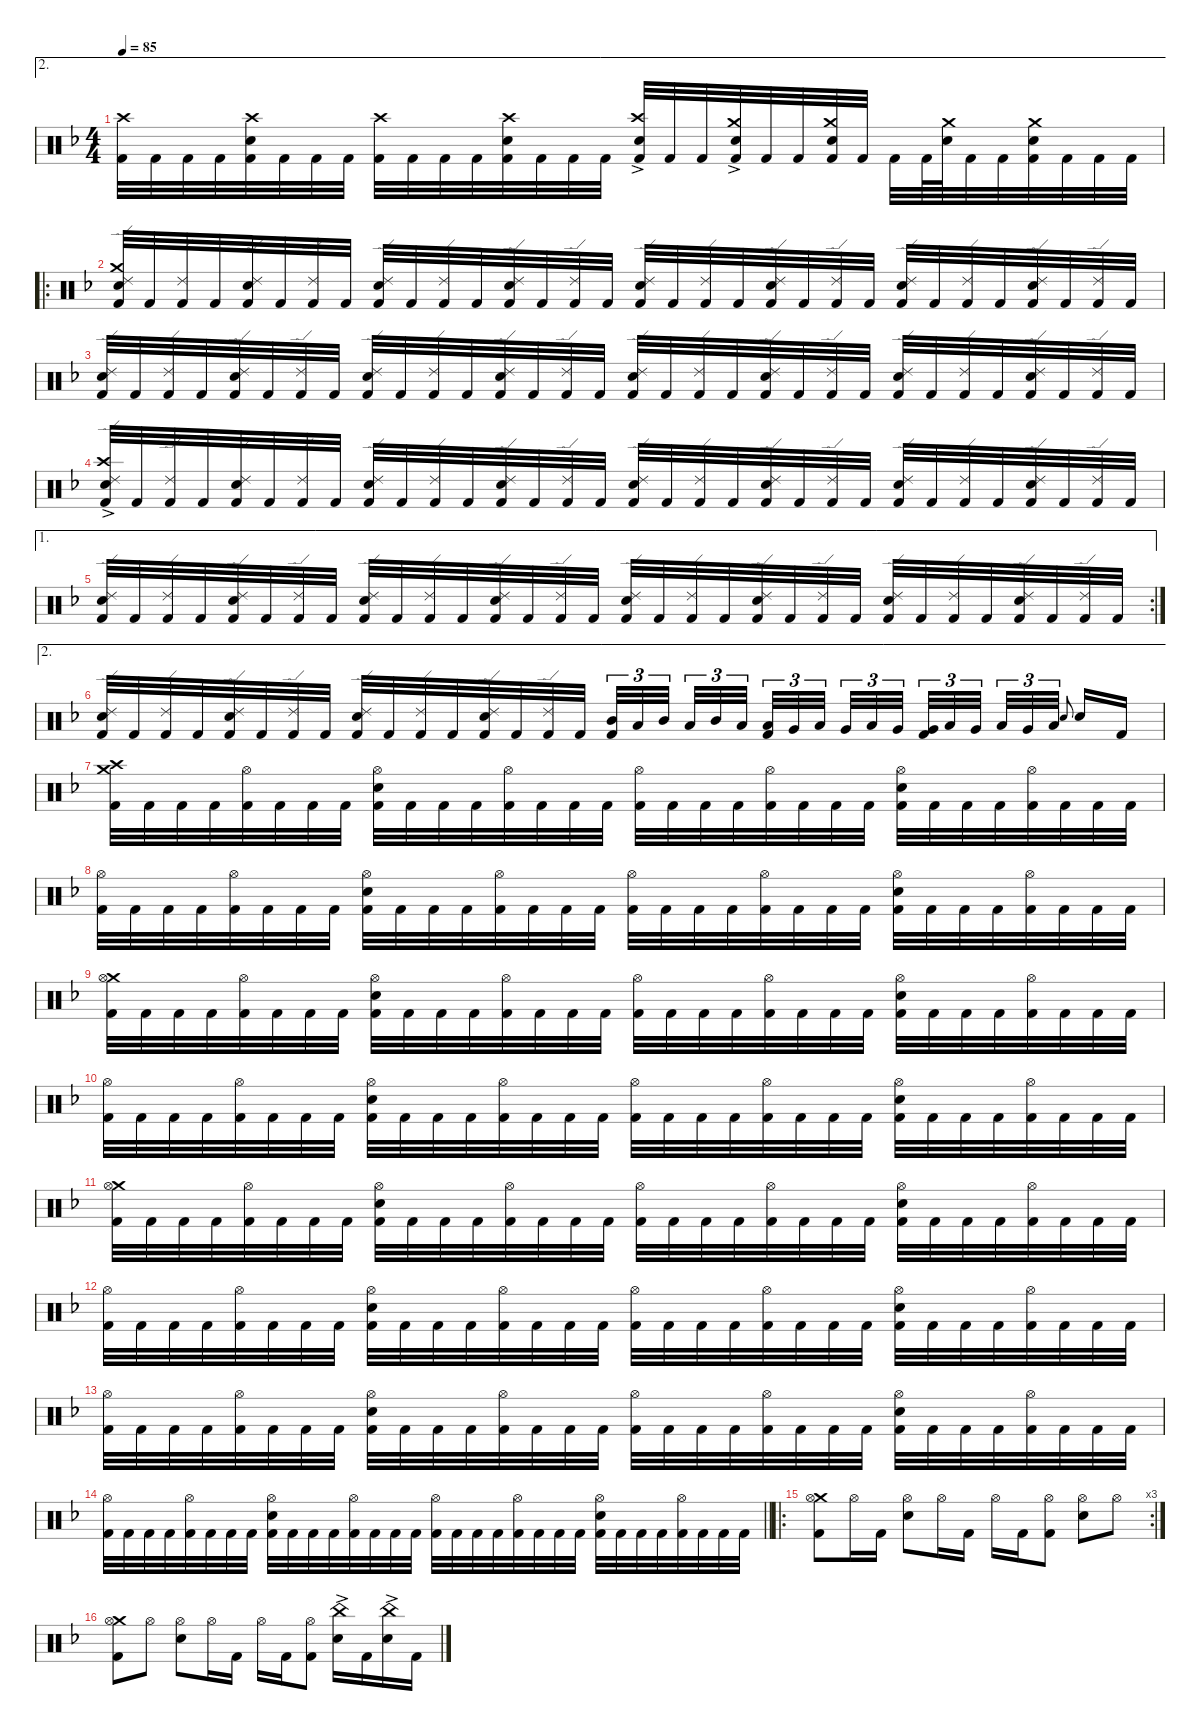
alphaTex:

\defaultSystemsLayout 4
\hideDynamics
\bracketExtendMode nobrackets
\singleTrackTrackNamePolicy hidden
\multiTrackTrackNamePolicy hidden
\firstSystemTrackNameMode fullname
\firstSystemTrackNameOrientation horizontal
\otherSystemsTrackNameOrientation horizontal
\track ("Martin Lopez - Drums" "drm.") {instrument percussion}
\staff {score}
\articulation defaults
\ae 2
\ts (4 4)
\tempo 85
\clef neutral
\ks f
("Crash high (hit)"{acc forcenatural} "Kick (hit) 2"{acc forcenatural}).32{dy f beam Down} "Kick (hit) 2"{acc forcenatural}.32{beam Down} "Kick (hit) 2"{acc forcenatural}.32{beam Down} "Kick (hit) 2"{acc forcenatural}.32{beam Down} ("Crash high (hit)"{acc forcenatural} "Snare (hit) 2"{acc forcenatural} "Kick (hit) 2"{acc forcenatural}).32{beam Down} "Kick (hit) 2"{acc forcenatural}.32{beam Down} "Kick (hit) 2"{acc forcenatural}.32{beam Down} "Kick (hit) 2"{acc forcenatural}.32{beam Down} ("Crash high (hit)"{acc forcenatural} "Kick (hit) 2"{acc forcenatural}).32{beam Down} "Kick (hit) 2"{acc forcenatural}.32{beam Down} "Kick (hit) 2"{acc forcenatural}.32{beam Down} "Kick (hit) 2"{acc forcenatural}.32{beam Down} ("Crash high (hit)"{acc forcenatural} "Snare (hit) 2"{acc forcenatural} "Kick (hit) 2"{acc forcenatural}).32{beam Down} "Kick (hit) 2"{acc forcenatural}.32{beam Down} "Kick (hit) 2"{acc forcenatural}.32{beam Down} "Kick (hit) 2"{acc forcenatural}.32{beam Down} ("Crash high (hit)"{ac acc forcenatural} "Snare (hit) 2"{acc forcenatural} "Kick (hit) 2"{acc forcenatural}).32{beam Up} "Kick (hit) 2"{acc forcenatural}.32{beam Up} "Kick (hit) 2"{acc forcenatural}.32{beam Up} ("Crash medium (hit)"{ac acc forcenatural} "Snare (hit) 2"{acc forcenatural} "Kick (hit) 2"{acc forcenatural}).32{beam Up} "Kick (hit) 2"{acc forcenatural}.32{beam Up} "Kick (hit) 2"{acc forcenatural}.32{beam Up} ("Crash medium (hit)"{acc forcenatural} "Snare (hit) 2"{acc forcenatural} "Kick (hit) 2"{acc forcenatural}).32{beam Up} "Kick (hit) 2"{acc forcenatural}.32{beam Up} "Kick (hit) 2"{acc forcenatural}.32{beam Down} "Kick (hit) 2"{acc forcenatural}.64{beam Down} ("Crash medium (hit)"{acc forcenatural} "Snare (hit) 2"{acc forcenatural}).64{beam Down} "Kick (hit) 2"{acc forcenatural}.32{beam Down} "Kick (hit) 2"{acc forcenatural}.32{beam Down} ("Crash medium (hit)"{acc forcenatural} "Snare (hit) 2"{acc forcenatural} "Kick (hit) 2"{acc forcenatural}).32{beam Down} "Kick (hit) 2"{acc forcenatural}.32{beam Down} "Kick (hit) 2"{acc forcenatural}.32{beam Down} "Kick (hit) 2"{acc forcenatural}.32{beam Down} |
\ro
("Ride (edge) 2"{acc forcenatural} "Crash medium (hit)"{acc forcenatural} "Snare (hit) 2"{acc forcenatural} "Kick (hit) 2"{acc forcenatural}).32{beam Up} "Kick (hit) 2"{acc forcenatural}.32{beam Up} ("Ride (edge) 2"{acc forcenatural} "Kick (hit) 2"{acc forcenatural}).32{beam Up} "Kick (hit) 2"{acc forcenatural}.32{beam Up} ("Ride (edge) 2"{acc forcenatural} "Snare (hit) 2"{acc forcenatural} "Kick (hit) 2"{acc forcenatural}).32{beam Up} "Kick (hit) 2"{acc forcenatural}.32{beam Up} ("Ride (edge) 2"{acc forcenatural} "Kick (hit) 2"{acc forcenatural}).32{beam Up} "Kick (hit) 2"{acc forcenatural}.32{beam Up} ("Ride (edge) 2"{acc forcenatural} "Snare (hit) 2"{acc forcenatural} "Kick (hit) 2"{acc forcenatural}).32{beam Up} "Kick (hit) 2"{acc forcenatural}.32{beam Up} ("Ride (edge) 2"{acc forcenatural} "Kick (hit) 2"{acc forcenatural}).32{beam Up} "Kick (hit) 2"{acc forcenatural}.32{beam Up} ("Ride (edge) 2"{acc forcenatural} "Snare (hit) 2"{acc forcenatural} "Kick (hit) 2"{acc forcenatural}).32{beam Up} "Kick (hit) 2"{acc forcenatural}.32{beam Up} ("Ride (edge) 2"{acc forcenatural} "Kick (hit) 2"{acc forcenatural}).32{beam Up} "Kick (hit) 2"{acc forcenatural}.32{beam Up} ("Ride (edge) 2"{acc forcenatural} "Snare (hit) 2"{acc forcenatural} "Kick (hit) 2"{acc forcenatural}).32{beam Up} "Kick (hit) 2"{acc forcenatural}.32{beam Up} ("Ride (edge) 2"{acc forcenatural} "Kick (hit) 2"{acc forcenatural}).32{beam Up} "Kick (hit) 2"{acc forcenatural}.32{beam Up} ("Ride (edge) 2"{acc forcenatural} "Snare (hit) 2"{acc forcenatural} "Kick (hit) 2"{acc forcenatural}).32{beam Up} "Kick (hit) 2"{acc forcenatural}.32{beam Up} ("Ride (edge) 2"{acc forcenatural} "Kick (hit) 2"{acc forcenatural}).32{beam Up} "Kick (hit) 2"{acc forcenatural}.32{beam Up} ("Ride (edge) 2"{acc forcenatural} "Snare (hit) 2"{acc forcenatural} "Kick (hit) 2"{acc forcenatural}).32{beam Up} "Kick (hit) 2"{acc forcenatural}.32{beam Up} ("Ride (edge) 2"{acc forcenatural} "Kick (hit) 2"{acc forcenatural}).32{beam Up} "Kick (hit) 2"{acc forcenatural}.32{beam Up} ("Ride (edge) 2"{acc forcenatural} "Snare (hit) 2"{acc forcenatural} "Kick (hit) 2"{acc forcenatural}).32{beam Up} "Kick (hit) 2"{acc forcenatural}.32{beam Up} ("Ride (edge) 2"{acc forcenatural} "Kick (hit) 2"{acc forcenatural}).32{beam Up} "Kick (hit) 2"{acc forcenatural}.32{beam Up} |
("Ride (edge) 2"{acc forcenatural} "Snare (hit) 2"{acc forcenatural} "Kick (hit) 2"{acc forcenatural}).32{beam Up} "Kick (hit) 2"{acc forcenatural}.32{beam Up} ("Ride (edge) 2"{acc forcenatural} "Kick (hit) 2"{acc forcenatural}).32{beam Up} "Kick (hit) 2"{acc forcenatural}.32{beam Up} ("Ride (edge) 2"{acc forcenatural} "Snare (hit) 2"{acc forcenatural} "Kick (hit) 2"{acc forcenatural}).32{beam Up} "Kick (hit) 2"{acc forcenatural}.32{beam Up} ("Ride (edge) 2"{acc forcenatural} "Kick (hit) 2"{acc forcenatural}).32{beam Up} "Kick (hit) 2"{acc forcenatural}.32{beam Up} ("Ride (edge) 2"{acc forcenatural} "Snare (hit) 2"{acc forcenatural} "Kick (hit) 2"{acc forcenatural}).32{beam Up} "Kick (hit) 2"{acc forcenatural}.32{beam Up} ("Ride (edge) 2"{acc forcenatural} "Kick (hit) 2"{acc forcenatural}).32{beam Up} "Kick (hit) 2"{acc forcenatural}.32{beam Up} ("Ride (edge) 2"{acc forcenatural} "Snare (hit) 2"{acc forcenatural} "Kick (hit) 2"{acc forcenatural}).32{beam Up} "Kick (hit) 2"{acc forcenatural}.32{beam Up} ("Ride (edge) 2"{acc forcenatural} "Kick (hit) 2"{acc forcenatural}).32{beam Up} "Kick (hit) 2"{acc forcenatural}.32{beam Up} ("Ride (edge) 2"{acc forcenatural} "Snare (hit) 2"{acc forcenatural} "Kick (hit) 2"{acc forcenatural}).32{beam Up} "Kick (hit) 2"{acc forcenatural}.32{beam Up} ("Ride (edge) 2"{acc forcenatural} "Kick (hit) 2"{acc forcenatural}).32{beam Up} "Kick (hit) 2"{acc forcenatural}.32{beam Up} ("Ride (edge) 2"{acc forcenatural} "Snare (hit) 2"{acc forcenatural} "Kick (hit) 2"{acc forcenatural}).32{beam Up} "Kick (hit) 2"{acc forcenatural}.32{beam Up} ("Ride (edge) 2"{acc forcenatural} "Kick (hit) 2"{acc forcenatural}).32{beam Up} "Kick (hit) 2"{acc forcenatural}.32{beam Up} ("Ride (edge) 2"{acc forcenatural} "Snare (hit) 2"{acc forcenatural} "Kick (hit) 2"{acc forcenatural}).32{beam Up} "Kick (hit) 2"{acc forcenatural}.32{beam Up} ("Ride (edge) 2"{acc forcenatural} "Kick (hit) 2"{acc forcenatural}).32{beam Up} "Kick (hit) 2"{acc forcenatural}.32{beam Up} ("Ride (edge) 2"{acc forcenatural} "Snare (hit) 2"{acc forcenatural} "Kick (hit) 2"{acc forcenatural}).32{beam Up} "Kick (hit) 2"{acc forcenatural}.32{beam Up} ("Ride (edge) 2"{acc forcenatural} "Kick (hit) 2"{acc forcenatural}).32{beam Up} "Kick (hit) 2"{acc forcenatural}.32{beam Up} |
("Ride (edge) 2"{acc forcenatural} "Crash high (hit)"{ac acc forcenatural} "Snare (hit) 2"{acc forcenatural} "Kick (hit) 2"{acc forcenatural}).32{beam Up} "Kick (hit) 2"{acc forcenatural}.32{beam Up} ("Ride (edge) 2"{acc forcenatural} "Kick (hit) 2"{acc forcenatural}).32{beam Up} "Kick (hit) 2"{acc forcenatural}.32{beam Up} ("Ride (edge) 2"{acc forcenatural} "Snare (hit) 2"{acc forcenatural} "Kick (hit) 2"{acc forcenatural}).32{beam Up} "Kick (hit) 2"{acc forcenatural}.32{beam Up} ("Ride (edge) 2"{acc forcenatural} "Kick (hit) 2"{acc forcenatural}).32{beam Up} "Kick (hit) 2"{acc forcenatural}.32{beam Up} ("Ride (edge) 2"{acc forcenatural} "Snare (hit) 2"{acc forcenatural} "Kick (hit) 2"{acc forcenatural}).32{beam Up} "Kick (hit) 2"{acc forcenatural}.32{beam Up} ("Ride (edge) 2"{acc forcenatural} "Kick (hit) 2"{acc forcenatural}).32{beam Up} "Kick (hit) 2"{acc forcenatural}.32{beam Up} ("Ride (edge) 2"{acc forcenatural} "Snare (hit) 2"{acc forcenatural} "Kick (hit) 2"{acc forcenatural}).32{beam Up} "Kick (hit) 2"{acc forcenatural}.32{beam Up} ("Ride (edge) 2"{acc forcenatural} "Kick (hit) 2"{acc forcenatural}).32{beam Up} "Kick (hit) 2"{acc forcenatural}.32{beam Up} ("Ride (edge) 2"{acc forcenatural} "Snare (hit) 2"{acc forcenatural} "Kick (hit) 2"{acc forcenatural}).32{beam Up} "Kick (hit) 2"{acc forcenatural}.32{beam Up} ("Ride (edge) 2"{acc forcenatural} "Kick (hit) 2"{acc forcenatural}).32{beam Up} "Kick (hit) 2"{acc forcenatural}.32{beam Up} ("Ride (edge) 2"{acc forcenatural} "Snare (hit) 2"{acc forcenatural} "Kick (hit) 2"{acc forcenatural}).32{beam Up} "Kick (hit) 2"{acc forcenatural}.32{beam Up} ("Ride (edge) 2"{acc forcenatural} "Kick (hit) 2"{acc forcenatural}).32{beam Up} "Kick (hit) 2"{acc forcenatural}.32{beam Up} ("Ride (edge) 2"{acc forcenatural} "Snare (hit) 2"{acc forcenatural} "Kick (hit) 2"{acc forcenatural}).32{beam Up} "Kick (hit) 2"{acc forcenatural}.32{beam Up} ("Ride (edge) 2"{acc forcenatural} "Kick (hit) 2"{acc forcenatural}).32{beam Up} "Kick (hit) 2"{acc forcenatural}.32{beam Up} ("Ride (edge) 2"{acc forcenatural} "Snare (hit) 2"{acc forcenatural} "Kick (hit) 2"{acc forcenatural}).32{beam Up} "Kick (hit) 2"{acc forcenatural}.32{beam Up} ("Ride (edge) 2"{acc forcenatural} "Kick (hit) 2"{acc forcenatural}).32{beam Up} "Kick (hit) 2"{acc forcenatural}.32{beam Up} |
\ae 1
\rc 2
("Ride (edge) 2"{acc forcenatural} "Snare (hit) 2"{acc forcenatural} "Kick (hit) 2"{acc forcenatural}).32{beam Up} "Kick (hit) 2"{acc forcenatural}.32{beam Up} ("Ride (edge) 2"{acc forcenatural} "Kick (hit) 2"{acc forcenatural}).32{beam Up} "Kick (hit) 2"{acc forcenatural}.32{beam Up} ("Ride (edge) 2"{acc forcenatural} "Snare (hit) 2"{acc forcenatural} "Kick (hit) 2"{acc forcenatural}).32{beam Up} "Kick (hit) 2"{acc forcenatural}.32{beam Up} ("Ride (edge) 2"{acc forcenatural} "Kick (hit) 2"{acc forcenatural}).32{beam Up} "Kick (hit) 2"{acc forcenatural}.32{beam Up} ("Ride (edge) 2"{acc forcenatural} "Snare (hit) 2"{acc forcenatural} "Kick (hit) 2"{acc forcenatural}).32{beam Up} "Kick (hit) 2"{acc forcenatural}.32{beam Up} ("Ride (edge) 2"{acc forcenatural} "Kick (hit) 2"{acc forcenatural}).32{beam Up} "Kick (hit) 2"{acc forcenatural}.32{beam Up} ("Ride (edge) 2"{acc forcenatural} "Snare (hit) 2"{acc forcenatural} "Kick (hit) 2"{acc forcenatural}).32{beam Up} "Kick (hit) 2"{acc forcenatural}.32{beam Up} ("Ride (edge) 2"{acc forcenatural} "Kick (hit) 2"{acc forcenatural}).32{beam Up} "Kick (hit) 2"{acc forcenatural}.32{beam Up} ("Ride (edge) 2"{acc forcenatural} "Snare (hit) 2"{acc forcenatural} "Kick (hit) 2"{acc forcenatural}).32{beam Up} "Kick (hit) 2"{acc forcenatural}.32{beam Up} ("Ride (edge) 2"{acc forcenatural} "Kick (hit) 2"{acc forcenatural}).32{beam Up} "Kick (hit) 2"{acc forcenatural}.32{beam Up} ("Ride (edge) 2"{acc forcenatural} "Snare (hit) 2"{acc forcenatural} "Kick (hit) 2"{acc forcenatural}).32{beam Up} "Kick (hit) 2"{acc forcenatural}.32{beam Up} ("Ride (edge) 2"{acc forcenatural} "Kick (hit) 2"{acc forcenatural}).32{beam Up} "Kick (hit) 2"{acc forcenatural}.32{beam Up} ("Ride (edge) 2"{acc forcenatural} "Snare (hit) 2"{acc forcenatural} "Kick (hit) 2"{acc forcenatural}).32{beam Up} "Kick (hit) 2"{acc forcenatural}.32{beam Up} ("Ride (edge) 2"{acc forcenatural} "Kick (hit) 2"{acc forcenatural}).32{beam Up} "Kick (hit) 2"{acc forcenatural}.32{beam Up} ("Ride (edge) 2"{acc forcenatural} "Snare (hit) 2"{acc forcenatural} "Kick (hit) 2"{acc forcenatural}).32{beam Up} "Kick (hit) 2"{acc forcenatural}.32{beam Up} ("Ride (edge) 2"{acc forcenatural} "Kick (hit) 2"{acc forcenatural}).32{beam Up} "Kick (hit) 2"{acc forcenatural}.32{beam Up} |
\ae 2
("Ride (edge) 2"{acc forcenatural} "Snare (hit) 2"{acc forcenatural} "Kick (hit) 2"{acc forcenatural}).32{beam Up} "Kick (hit) 2"{acc forcenatural}.32{beam Up} ("Ride (edge) 2"{acc forcenatural} "Kick (hit) 2"{acc forcenatural}).32{beam Up} "Kick (hit) 2"{acc forcenatural}.32{beam Up} ("Ride (edge) 2"{acc forcenatural} "Snare (hit) 2"{acc forcenatural} "Kick (hit) 2"{acc forcenatural}).32{beam Up} "Kick (hit) 2"{acc forcenatural}.32{beam Up} ("Ride (edge) 2"{acc forcenatural} "Kick (hit) 2"{acc forcenatural}).32{beam Up} "Kick (hit) 2"{acc forcenatural}.32{beam Up} ("Ride (edge) 2"{acc forcenatural} "Snare (hit) 2"{acc forcenatural} "Kick (hit) 2"{acc forcenatural}).32{beam Up} "Kick (hit) 2"{acc forcenatural}.32{beam Up} ("Ride (edge) 2"{acc forcenatural} "Kick (hit) 2"{acc forcenatural}).32{beam Up} "Kick (hit) 2"{acc forcenatural}.32{beam Up} ("Ride (edge) 2"{acc forcenatural} "Snare (hit) 2"{acc forcenatural} "Kick (hit) 2"{acc forcenatural}).32{beam Up} "Kick (hit) 2"{acc forcenatural}.32{beam Up} ("Ride (edge) 2"{acc forcenatural} "Kick (hit) 2"{acc forcenatural}).32{beam Up} "Kick (hit) 2"{acc forcenatural}.32{beam Up} ("Mid Tom (hit)"{acc forcenatural} "Kick (hit) 2"{acc forcenatural}).32{tu (3 2) beam Up} "Low Tom (hit)"{acc forcenatural}.32{tu (3 2) beam Up} "Mid Tom (hit)"{acc forcenatural}.32{tu (3 2) beam Up} "Low Tom (hit)"{acc forcenatural}.32{tu (3 2) beam Up} "Mid Tom (hit)"{acc forcenatural}.32{tu (3 2) beam Up} "Low Tom (hit)"{acc forcenatural}.32{tu (3 2) beam Up} ("Low Tom (hit)"{acc forcenatural} "Kick (hit) 2"{acc forcenatural}).32{tu (3 2) beam Up} "Very Low Tom (hit)"{acc forcenatural}.32{tu (3 2) beam Up} "Low Tom (hit)"{acc forcenatural}.32{tu (3 2) beam Up} "Very Low Tom (hit)"{acc forcenatural}.32{tu (3 2) beam Up} "Low Tom (hit)"{acc forcenatural}.32{tu (3 2) beam Up} "Very Low Tom (hit)"{acc forcenatural}.32{tu (3 2) beam Up} ("Very Low Tom (hit)"{acc forcenatural} "Kick (hit) 2"{acc forcenatural}).32{tu (3 2) beam Up} "Low Floor Tom (hit)"{acc forcenatural}.32{tu (3 2) beam Up} "Very Low Tom (hit)"{acc forcenatural}.32{tu (3 2) beam Up} "Low Floor Tom (hit)"{acc forcenatural}.32{tu (3 2) beam Up} "Very Low Tom (hit)"{acc forcenatural}.32{tu (3 2) beam Up} "Low Floor Tom (hit)"{acc forcenatural}.32{tu (3 2) beam Up} "Electric Snare (hit)"{acc forcenatural}.8{gr onbeat dy mf beam Up} "Snare (hit) 2"{acc forcenatural}.16{dy f beam Up} "Kick (hit) 2"{acc forcenatural}.16{beam Up} |
("Crash medium (hit)"{acc forcenatural} "Crash high (hit)"{acc forcenatural} "Kick (hit) 2"{acc forcenatural}).32{beam Down} "Kick (hit) 2"{acc forcenatural}.32{beam Down} "Kick (hit) 2"{acc forcenatural}.32{beam Down} "Kick (hit) 2"{acc forcenatural}.32{beam Down} ("Hi-Hat (open)"{acc forcenatural} "Kick (hit) 2"{acc forcenatural}).32{beam Down} "Kick (hit) 2"{acc forcenatural}.32{beam Down} "Kick (hit) 2"{acc forcenatural}.32{beam Down} "Kick (hit) 2"{acc forcenatural}.32{beam Down} ("Hi-Hat (open)"{acc forcenatural} "Snare (hit) 2"{acc forcenatural} "Kick (hit) 2"{acc forcenatural}).32{beam Down} "Kick (hit) 2"{acc forcenatural}.32{beam Down} "Kick (hit) 2"{acc forcenatural}.32{beam Down} "Kick (hit) 2"{acc forcenatural}.32{beam Down} ("Hi-Hat (open)"{acc forcenatural} "Kick (hit) 2"{acc forcenatural}).32{beam Down} "Kick (hit) 2"{acc forcenatural}.32{beam Down} "Kick (hit) 2"{acc forcenatural}.32{beam Down} "Kick (hit) 2"{acc forcenatural}.32{beam Down} ("Hi-Hat (open)"{acc forcenatural} "Kick (hit) 2"{acc forcenatural}).32{beam Down} "Kick (hit) 2"{acc forcenatural}.32{beam Down} "Kick (hit) 2"{acc forcenatural}.32{beam Down} "Kick (hit) 2"{acc forcenatural}.32{beam Down} ("Hi-Hat (open)"{acc forcenatural} "Kick (hit) 2"{acc forcenatural}).32{beam Down} "Kick (hit) 2"{acc forcenatural}.32{beam Down} "Kick (hit) 2"{acc forcenatural}.32{beam Down} "Kick (hit) 2"{acc forcenatural}.32{beam Down} ("Hi-Hat (open)"{acc forcenatural} "Snare (hit) 2"{acc forcenatural} "Kick (hit) 2"{acc forcenatural}).32{beam Down} "Kick (hit) 2"{acc forcenatural}.32{beam Down} "Kick (hit) 2"{acc forcenatural}.32{beam Down} "Kick (hit) 2"{acc forcenatural}.32{beam Down} ("Hi-Hat (open)"{acc forcenatural} "Kick (hit) 2"{acc forcenatural}).32{beam Down} "Kick (hit) 2"{acc forcenatural}.32{beam Down} "Kick (hit) 2"{acc forcenatural}.32{beam Down} "Kick (hit) 2"{acc forcenatural}.32{beam Down} |
("Hi-Hat (open)"{acc forcenatural} "Kick (hit) 2"{acc forcenatural}).32{beam Down} "Kick (hit) 2"{acc forcenatural}.32{beam Down} "Kick (hit) 2"{acc forcenatural}.32{beam Down} "Kick (hit) 2"{acc forcenatural}.32{beam Down} ("Hi-Hat (open)"{acc forcenatural} "Kick (hit) 2"{acc forcenatural}).32{beam Down} "Kick (hit) 2"{acc forcenatural}.32{beam Down} "Kick (hit) 2"{acc forcenatural}.32{beam Down} "Kick (hit) 2"{acc forcenatural}.32{beam Down} ("Hi-Hat (open)"{acc forcenatural} "Snare (hit) 2"{acc forcenatural} "Kick (hit) 2"{acc forcenatural}).32{beam Down} "Kick (hit) 2"{acc forcenatural}.32{beam Down} "Kick (hit) 2"{acc forcenatural}.32{beam Down} "Kick (hit) 2"{acc forcenatural}.32{beam Down} ("Hi-Hat (open)"{acc forcenatural} "Kick (hit) 2"{acc forcenatural}).32{beam Down} "Kick (hit) 2"{acc forcenatural}.32{beam Down} "Kick (hit) 2"{acc forcenatural}.32{beam Down} "Kick (hit) 2"{acc forcenatural}.32{beam Down} ("Hi-Hat (open)"{acc forcenatural} "Kick (hit) 2"{acc forcenatural}).32{beam Down} "Kick (hit) 2"{acc forcenatural}.32{beam Down} "Kick (hit) 2"{acc forcenatural}.32{beam Down} "Kick (hit) 2"{acc forcenatural}.32{beam Down} ("Hi-Hat (open)"{acc forcenatural} "Kick (hit) 2"{acc forcenatural}).32{beam Down} "Kick (hit) 2"{acc forcenatural}.32{beam Down} "Kick (hit) 2"{acc forcenatural}.32{beam Down} "Kick (hit) 2"{acc forcenatural}.32{beam Down} ("Hi-Hat (open)"{acc forcenatural} "Snare (hit) 2"{acc forcenatural} "Kick (hit) 2"{acc forcenatural}).32{beam Down} "Kick (hit) 2"{acc forcenatural}.32{beam Down} "Kick (hit) 2"{acc forcenatural}.32{beam Down} "Kick (hit) 2"{acc forcenatural}.32{beam Down} ("Hi-Hat (open)"{acc forcenatural} "Kick (hit) 2"{acc forcenatural}).32{beam Down} "Kick (hit) 2"{acc forcenatural}.32{beam Down} "Kick (hit) 2"{acc forcenatural}.32{beam Down} "Kick (hit) 2"{acc forcenatural}.32{beam Down} |
("Crash medium (hit)"{acc forcenatural} "Hi-Hat (open)"{acc forcenatural} "Kick (hit) 2"{acc forcenatural}).32{beam Down} "Kick (hit) 2"{acc forcenatural}.32{beam Down} "Kick (hit) 2"{acc forcenatural}.32{beam Down} "Kick (hit) 2"{acc forcenatural}.32{beam Down} ("Hi-Hat (open)"{acc forcenatural} "Kick (hit) 2"{acc forcenatural}).32{beam Down} "Kick (hit) 2"{acc forcenatural}.32{beam Down} "Kick (hit) 2"{acc forcenatural}.32{beam Down} "Kick (hit) 2"{acc forcenatural}.32{beam Down} ("Hi-Hat (open)"{acc forcenatural} "Snare (hit) 2"{acc forcenatural} "Kick (hit) 2"{acc forcenatural}).32{beam Down} "Kick (hit) 2"{acc forcenatural}.32{beam Down} "Kick (hit) 2"{acc forcenatural}.32{beam Down} "Kick (hit) 2"{acc forcenatural}.32{beam Down} ("Hi-Hat (open)"{acc forcenatural} "Kick (hit) 2"{acc forcenatural}).32{beam Down} "Kick (hit) 2"{acc forcenatural}.32{beam Down} "Kick (hit) 2"{acc forcenatural}.32{beam Down} "Kick (hit) 2"{acc forcenatural}.32{beam Down} ("Hi-Hat (open)"{acc forcenatural} "Kick (hit) 2"{acc forcenatural}).32{beam Down} "Kick (hit) 2"{acc forcenatural}.32{beam Down} "Kick (hit) 2"{acc forcenatural}.32{beam Down} "Kick (hit) 2"{acc forcenatural}.32{beam Down} ("Hi-Hat (open)"{acc forcenatural} "Kick (hit) 2"{acc forcenatural}).32{beam Down} "Kick (hit) 2"{acc forcenatural}.32{beam Down} "Kick (hit) 2"{acc forcenatural}.32{beam Down} "Kick (hit) 2"{acc forcenatural}.32{beam Down} ("Hi-Hat (open)"{acc forcenatural} "Snare (hit) 2"{acc forcenatural} "Kick (hit) 2"{acc forcenatural}).32{beam Down} "Kick (hit) 2"{acc forcenatural}.32{beam Down} "Kick (hit) 2"{acc forcenatural}.32{beam Down} "Kick (hit) 2"{acc forcenatural}.32{beam Down} ("Hi-Hat (open)"{acc forcenatural} "Kick (hit) 2"{acc forcenatural}).32{beam Down} "Kick (hit) 2"{acc forcenatural}.32{beam Down} "Kick (hit) 2"{acc forcenatural}.32{beam Down} "Kick (hit) 2"{acc forcenatural}.32{beam Down} |
("Hi-Hat (open)"{acc forcenatural} "Kick (hit) 2"{acc forcenatural}).32{beam Down} "Kick (hit) 2"{acc forcenatural}.32{beam Down} "Kick (hit) 2"{acc forcenatural}.32{beam Down} "Kick (hit) 2"{acc forcenatural}.32{beam Down} ("Hi-Hat (open)"{acc forcenatural} "Kick (hit) 2"{acc forcenatural}).32{beam Down} "Kick (hit) 2"{acc forcenatural}.32{beam Down} "Kick (hit) 2"{acc forcenatural}.32{beam Down} "Kick (hit) 2"{acc forcenatural}.32{beam Down} ("Hi-Hat (open)"{acc forcenatural} "Snare (hit) 2"{acc forcenatural} "Kick (hit) 2"{acc forcenatural}).32{beam Down} "Kick (hit) 2"{acc forcenatural}.32{beam Down} "Kick (hit) 2"{acc forcenatural}.32{beam Down} "Kick (hit) 2"{acc forcenatural}.32{beam Down} ("Hi-Hat (open)"{acc forcenatural} "Kick (hit) 2"{acc forcenatural}).32{beam Down} "Kick (hit) 2"{acc forcenatural}.32{beam Down} "Kick (hit) 2"{acc forcenatural}.32{beam Down} "Kick (hit) 2"{acc forcenatural}.32{beam Down} ("Hi-Hat (open)"{acc forcenatural} "Kick (hit) 2"{acc forcenatural}).32{beam Down} "Kick (hit) 2"{acc forcenatural}.32{beam Down} "Kick (hit) 2"{acc forcenatural}.32{beam Down} "Kick (hit) 2"{acc forcenatural}.32{beam Down} ("Hi-Hat (open)"{acc forcenatural} "Kick (hit) 2"{acc forcenatural}).32{beam Down} "Kick (hit) 2"{acc forcenatural}.32{beam Down} "Kick (hit) 2"{acc forcenatural}.32{beam Down} "Kick (hit) 2"{acc forcenatural}.32{beam Down} ("Hi-Hat (open)"{acc forcenatural} "Snare (hit) 2"{acc forcenatural} "Kick (hit) 2"{acc forcenatural}).32{beam Down} "Kick (hit) 2"{acc forcenatural}.32{beam Down} "Kick (hit) 2"{acc forcenatural}.32{beam Down} "Kick (hit) 2"{acc forcenatural}.32{beam Down} ("Hi-Hat (open)"{acc forcenatural} "Kick (hit) 2"{acc forcenatural}).32{beam Down} "Kick (hit) 2"{acc forcenatural}.32{beam Down} "Kick (hit) 2"{acc forcenatural}.32{beam Down} "Kick (hit) 2"{acc forcenatural}.32{beam Down} |
("Crash medium (hit)"{acc forcenatural} "Hi-Hat (open)"{acc forcenatural} "Kick (hit) 2"{acc forcenatural}).32{beam Down} "Kick (hit) 2"{acc forcenatural}.32{beam Down} "Kick (hit) 2"{acc forcenatural}.32{beam Down} "Kick (hit) 2"{acc forcenatural}.32{beam Down} ("Hi-Hat (open)"{acc forcenatural} "Kick (hit) 2"{acc forcenatural}).32{beam Down} "Kick (hit) 2"{acc forcenatural}.32{beam Down} "Kick (hit) 2"{acc forcenatural}.32{beam Down} "Kick (hit) 2"{acc forcenatural}.32{beam Down} ("Hi-Hat (open)"{acc forcenatural} "Snare (hit) 2"{acc forcenatural} "Kick (hit) 2"{acc forcenatural}).32{beam Down} "Kick (hit) 2"{acc forcenatural}.32{beam Down} "Kick (hit) 2"{acc forcenatural}.32{beam Down} "Kick (hit) 2"{acc forcenatural}.32{beam Down} ("Hi-Hat (open)"{acc forcenatural} "Kick (hit) 2"{acc forcenatural}).32{beam Down} "Kick (hit) 2"{acc forcenatural}.32{beam Down} "Kick (hit) 2"{acc forcenatural}.32{beam Down} "Kick (hit) 2"{acc forcenatural}.32{beam Down} ("Hi-Hat (open)"{acc forcenatural} "Kick (hit) 2"{acc forcenatural}).32{beam Down} "Kick (hit) 2"{acc forcenatural}.32{beam Down} "Kick (hit) 2"{acc forcenatural}.32{beam Down} "Kick (hit) 2"{acc forcenatural}.32{beam Down} ("Hi-Hat (open)"{acc forcenatural} "Kick (hit) 2"{acc forcenatural}).32{beam Down} "Kick (hit) 2"{acc forcenatural}.32{beam Down} "Kick (hit) 2"{acc forcenatural}.32{beam Down} "Kick (hit) 2"{acc forcenatural}.32{beam Down} ("Hi-Hat (open)"{acc forcenatural} "Snare (hit) 2"{acc forcenatural} "Kick (hit) 2"{acc forcenatural}).32{beam Down} "Kick (hit) 2"{acc forcenatural}.32{beam Down} "Kick (hit) 2"{acc forcenatural}.32{beam Down} "Kick (hit) 2"{acc forcenatural}.32{beam Down} ("Hi-Hat (open)"{acc forcenatural} "Kick (hit) 2"{acc forcenatural}).32{beam Down} "Kick (hit) 2"{acc forcenatural}.32{beam Down} "Kick (hit) 2"{acc forcenatural}.32{beam Down} "Kick (hit) 2"{acc forcenatural}.32{beam Down} |
("Hi-Hat (open)"{acc forcenatural} "Kick (hit) 2"{acc forcenatural}).32{beam Down} "Kick (hit) 2"{acc forcenatural}.32{beam Down} "Kick (hit) 2"{acc forcenatural}.32{beam Down} "Kick (hit) 2"{acc forcenatural}.32{beam Down} ("Hi-Hat (open)"{acc forcenatural} "Kick (hit) 2"{acc forcenatural}).32{beam Down} "Kick (hit) 2"{acc forcenatural}.32{beam Down} "Kick (hit) 2"{acc forcenatural}.32{beam Down} "Kick (hit) 2"{acc forcenatural}.32{beam Down} ("Hi-Hat (open)"{acc forcenatural} "Snare (hit) 2"{acc forcenatural} "Kick (hit) 2"{acc forcenatural}).32{beam Down} "Kick (hit) 2"{acc forcenatural}.32{beam Down} "Kick (hit) 2"{acc forcenatural}.32{beam Down} "Kick (hit) 2"{acc forcenatural}.32{beam Down} ("Hi-Hat (open)"{acc forcenatural} "Kick (hit) 2"{acc forcenatural}).32{beam Down} "Kick (hit) 2"{acc forcenatural}.32{beam Down} "Kick (hit) 2"{acc forcenatural}.32{beam Down} "Kick (hit) 2"{acc forcenatural}.32{beam Down} ("Hi-Hat (open)"{acc forcenatural} "Kick (hit) 2"{acc forcenatural}).32{beam Down} "Kick (hit) 2"{acc forcenatural}.32{beam Down} "Kick (hit) 2"{acc forcenatural}.32{beam Down} "Kick (hit) 2"{acc forcenatural}.32{beam Down} ("Hi-Hat (open)"{acc forcenatural} "Kick (hit) 2"{acc forcenatural}).32{beam Down} "Kick (hit) 2"{acc forcenatural}.32{beam Down} "Kick (hit) 2"{acc forcenatural}.32{beam Down} "Kick (hit) 2"{acc forcenatural}.32{beam Down} ("Hi-Hat (open)"{acc forcenatural} "Snare (hit) 2"{acc forcenatural} "Kick (hit) 2"{acc forcenatural}).32{beam Down} "Kick (hit) 2"{acc forcenatural}.32{beam Down} "Kick (hit) 2"{acc forcenatural}.32{beam Down} "Kick (hit) 2"{acc forcenatural}.32{beam Down} ("Hi-Hat (open)"{acc forcenatural} "Kick (hit) 2"{acc forcenatural}).32{beam Down} "Kick (hit) 2"{acc forcenatural}.32{beam Down} "Kick (hit) 2"{acc forcenatural}.32{beam Down} "Kick (hit) 2"{acc forcenatural}.32{beam Down} |
("Hi-Hat (open)"{acc forcenatural} "Kick (hit) 2"{acc forcenatural}).32{beam Down} "Kick (hit) 2"{acc forcenatural}.32{beam Down} "Kick (hit) 2"{acc forcenatural}.32{beam Down} "Kick (hit) 2"{acc forcenatural}.32{beam Down} ("Hi-Hat (open)"{acc forcenatural} "Kick (hit) 2"{acc forcenatural}).32{beam Down} "Kick (hit) 2"{acc forcenatural}.32{beam Down} "Kick (hit) 2"{acc forcenatural}.32{beam Down} "Kick (hit) 2"{acc forcenatural}.32{beam Down} ("Hi-Hat (open)"{acc forcenatural} "Snare (hit) 2"{acc forcenatural} "Kick (hit) 2"{acc forcenatural}).32{beam Down} "Kick (hit) 2"{acc forcenatural}.32{beam Down} "Kick (hit) 2"{acc forcenatural}.32{beam Down} "Kick (hit) 2"{acc forcenatural}.32{beam Down} ("Hi-Hat (open)"{acc forcenatural} "Kick (hit) 2"{acc forcenatural}).32{beam Down} "Kick (hit) 2"{acc forcenatural}.32{beam Down} "Kick (hit) 2"{acc forcenatural}.32{beam Down} "Kick (hit) 2"{acc forcenatural}.32{beam Down} ("Hi-Hat (open)"{acc forcenatural} "Kick (hit) 2"{acc forcenatural}).32{beam Down} "Kick (hit) 2"{acc forcenatural}.32{beam Down} "Kick (hit) 2"{acc forcenatural}.32{beam Down} "Kick (hit) 2"{acc forcenatural}.32{beam Down} ("Hi-Hat (open)"{acc forcenatural} "Kick (hit) 2"{acc forcenatural}).32{beam Down} "Kick (hit) 2"{acc forcenatural}.32{beam Down} "Kick (hit) 2"{acc forcenatural}.32{beam Down} "Kick (hit) 2"{acc forcenatural}.32{beam Down} ("Hi-Hat (open)"{acc forcenatural} "Snare (hit) 2"{acc forcenatural} "Kick (hit) 2"{acc forcenatural}).32{beam Down} "Kick (hit) 2"{acc forcenatural}.32{beam Down} "Kick (hit) 2"{acc forcenatural}.32{beam Down} "Kick (hit) 2"{acc forcenatural}.32{beam Down} ("Hi-Hat (open)"{acc forcenatural} "Kick (hit) 2"{acc forcenatural}).32{beam Down} "Kick (hit) 2"{acc forcenatural}.32{beam Down} "Kick (hit) 2"{acc forcenatural}.32{beam Down} "Kick (hit) 2"{acc forcenatural}.32{beam Down} |
\barLineRight lightlight
("Hi-Hat (open)"{acc forcenatural} "Kick (hit) 2"{acc forcenatural}).32{beam Down} "Kick (hit) 2"{acc forcenatural}.32{beam Down} "Kick (hit) 2"{acc forcenatural}.32{beam Down} "Kick (hit) 2"{acc forcenatural}.32{beam Down} ("Hi-Hat (open)"{acc forcenatural} "Kick (hit) 2"{acc forcenatural}).32{beam Down} "Kick (hit) 2"{acc forcenatural}.32{beam Down} "Kick (hit) 2"{acc forcenatural}.32{beam Down} "Kick (hit) 2"{acc forcenatural}.32{beam Down} ("Hi-Hat (open)"{acc forcenatural} "Snare (hit) 2"{acc forcenatural} "Kick (hit) 2"{acc forcenatural}).32{beam Down} "Kick (hit) 2"{acc forcenatural}.32{beam Down} "Kick (hit) 2"{acc forcenatural}.32{beam Down} "Kick (hit) 2"{acc forcenatural}.32{beam Down} ("Hi-Hat (open)"{acc forcenatural} "Kick (hit) 2"{acc forcenatural}).32{beam Down} "Kick (hit) 2"{acc forcenatural}.32{beam Down} "Kick (hit) 2"{acc forcenatural}.32{beam Down} "Kick (hit) 2"{acc forcenatural}.32{beam Down} ("Hi-Hat (open)"{acc forcenatural} "Kick (hit) 2"{acc forcenatural}).32{beam Down} "Kick (hit) 2"{acc forcenatural}.32{beam Down} "Kick (hit) 2"{acc forcenatural}.32{beam Down} "Kick (hit) 2"{acc forcenatural}.32{beam Down} ("Hi-Hat (open)"{acc forcenatural} "Kick (hit) 2"{acc forcenatural}).32{beam Down} "Kick (hit) 2"{acc forcenatural}.32{beam Down} "Kick (hit) 2"{acc forcenatural}.32{beam Down} "Kick (hit) 2"{acc forcenatural}.32{beam Down} ("Hi-Hat (open)"{acc forcenatural} "Snare (hit) 2"{acc forcenatural} "Kick (hit) 2"{acc forcenatural}).32{beam Down} "Kick (hit) 2"{acc forcenatural}.32{beam Down} "Kick (hit) 2"{acc forcenatural}.32{beam Down} "Kick (hit) 2"{acc forcenatural}.32{beam Down} ("Hi-Hat (open)"{acc forcenatural} "Kick (hit) 2"{acc forcenatural}).32{beam Down} "Kick (hit) 2"{acc forcenatural}.32{beam Down} "Kick (hit) 2"{acc forcenatural}.32{beam Down} "Kick (hit) 2"{acc forcenatural}.32{beam Down} |
\ro
\rc 3
("Crash medium (hit)"{acc forcenatural} "Hi-Hat (open)"{acc forcenatural} "Kick (hit) 2"{acc forcenatural}).8{beam Down} "Hi-Hat (open)"{acc forcenatural}.16{beam Down} "Kick (hit) 2"{acc forcenatural}.16{beam Down} ("Hi-Hat (open)"{acc forcenatural} "Snare (hit) 2"{acc forcenatural}).8{beam Down} "Hi-Hat (open)"{acc forcenatural}.16{beam Down} "Kick (hit) 2"{acc forcenatural}.16{beam Down} "Hi-Hat (open)"{acc forcenatural}.16{beam Down} "Kick (hit) 2"{acc forcenatural}.16{beam Down} ("Hi-Hat (open)"{acc forcenatural} "Kick (hit) 2"{acc forcenatural}).8{beam Down} ("Hi-Hat (open)"{acc forcenatural} "Snare (hit) 2"{acc forcenatural}).8{beam Down} "Hi-Hat (open)"{acc forcenatural}.8{beam Down} |
("Crash medium (hit)"{acc forcenatural} "Hi-Hat (open)"{acc forcenatural} "Kick (hit) 2"{acc forcenatural}).8{beam Down} "Hi-Hat (open)"{acc forcenatural}.8{beam Down} ("Hi-Hat (open)"{acc forcenatural} "Snare (hit) 2"{acc forcenatural}).8{beam Down} "Hi-Hat (open)"{acc forcenatural}.16{beam Down} "Kick (hit) 2"{acc forcenatural}.16{beam Down} "Hi-Hat (open)"{acc forcenatural}.16{beam Down} "Kick (hit) 2"{acc forcenatural}.16{beam Down} ("Hi-Hat (open)"{acc forcenatural} "Kick (hit) 2"{acc forcenatural}).8{beam Down} ("China (hit)"{ac acc forcenatural} "Snare (hit) 2"{ac acc forcenatural}).16{beam Down} "Kick (hit) 2"{acc forcenatural}.16{beam Down} ("China (hit)"{ac acc forcenatural} "Snare (hit) 2"{ac acc forcenatural}).16{beam Down} "Kick (hit) 2"{acc forcenatural}.16{beam Down}
